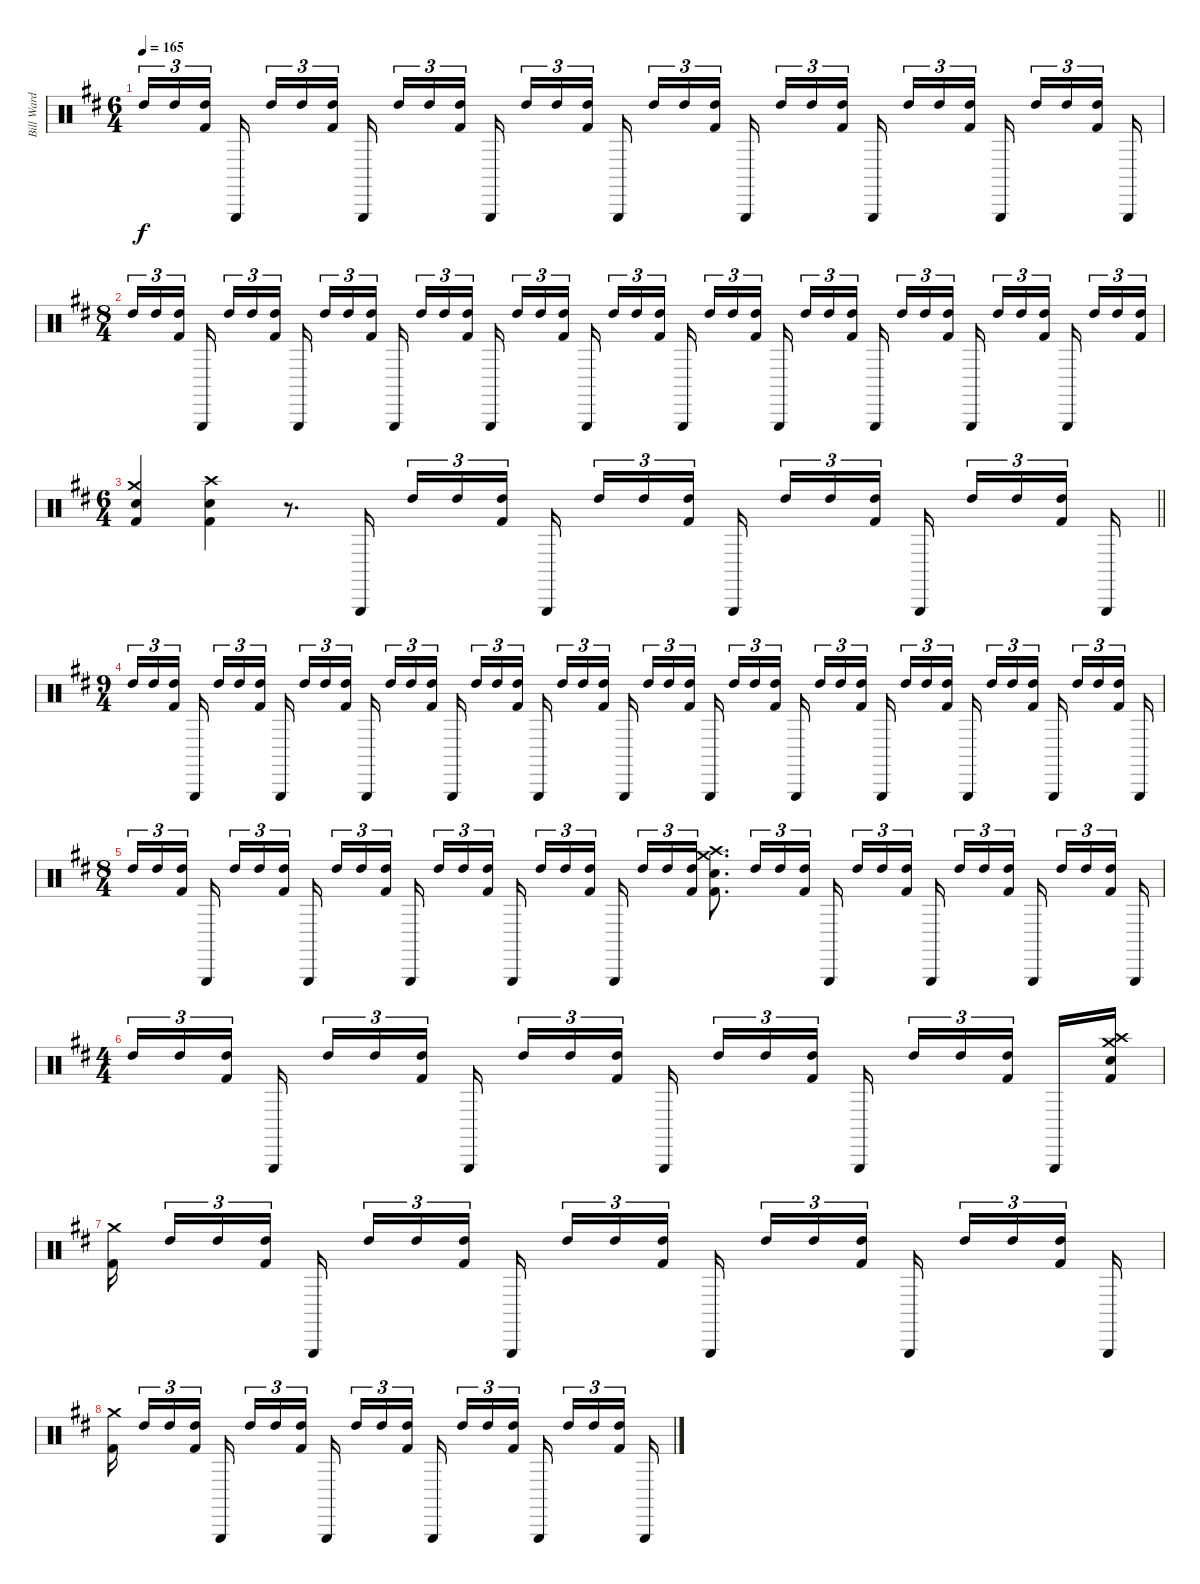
\track ("Bill Ward" "Bill Ward") {instrument percussion}
\staff {score}
\articulation defaults
\ts (6 4)
\tempo 165
\clef neutral
\ks d "High Tom (hit)".16{tu (3 2) dy f} "High Tom (hit)".16{tu (3 2)}
("High Tom (hit)" "Kick (hit) 2").16{tu (3 2) beam splitsecondary} "Triangle (hit)".16{beam splitsecondary} "High Tom (hit)".16{tu (3 2)} "High Tom (hit)".16{tu (3 2)} ("High Tom (hit)" "Kick (hit) 2").16{tu (3 2) beam splitsecondary} "Triangle (hit)".16{beam splitsecondary} "High Tom (hit)".16{tu (3 2)} "High Tom (hit)".16{tu (3 2)} ("High Tom (hit)" "Kick (hit) 2").16{tu (3 2) beam splitsecondary} "Triangle (hit)".16{beam splitsecondary} "High Tom (hit)".16{tu (3 2)} "High Tom (hit)".16{tu (3 2)} ("High Tom (hit)" "Kick (hit) 2").16{tu (3 2) beam splitsecondary} "Triangle (hit)".16 "High Tom (hit)".16{tu (3 2)} "High Tom (hit)".16{tu (3 2)} ("High Tom (hit)" "Kick (hit) 2").16{tu (3 2) beam splitsecondary} "Triangle (hit)".16{beam splitsecondary} "High Tom (hit)".16{tu (3 2)} "High Tom (hit)".16{tu (3 2)} ("High Tom (hit)" "Kick (hit) 2").16{tu (3 2) beam splitsecondary} "Triangle (hit)".16{beam splitsecondary} "High Tom (hit)".16{tu (3 2)} "High Tom (hit)".16{tu (3 2)} ("High Tom (hit)" "Kick (hit) 2").16{tu (3 2) beam splitsecondary} "Triangle (hit)".16{beam splitsecondary} "High Tom (hit)".16{tu (3 2)} "High Tom (hit)".16{tu (3 2)} ("High Tom (hit)" "Kick (hit) 2").16{tu (3 2) beam splitsecondary} "Triangle (hit)".16 |
\ts (8 4)
"High Tom (hit)".16{tu (3 2)} "High Tom (hit)".16{tu (3 2)} ("High Tom (hit)" "Kick (hit) 2").16{tu (3 2) beam splitsecondary} "Triangle (hit)".16{beam splitsecondary} "High Tom (hit)".16{tu (3 2)} "High Tom (hit)".16{tu (3 2)} ("High Tom (hit)" "Kick (hit) 2").16{tu (3 2) beam splitsecondary} "Triangle (hit)".16{beam splitsecondary} "High Tom (hit)".16{tu (3 2)} "High Tom (hit)".16{tu (3 2)} ("High Tom (hit)" "Kick (hit) 2").16{tu (3 2)} "Triangle (hit)".16{beam splitsecondary} "High Tom (hit)".16{tu (3 2)} "High Tom (hit)".16{tu (3 2)} ("High Tom (hit)" "Kick (hit) 2").16{tu (3 2) beam splitsecondary} "Triangle (hit)".16 "High Tom (hit)".16{tu (3 2)} "High Tom (hit)".16{tu (3 2)} ("High Tom (hit)" "Kick (hit) 2").16{tu (3 2) beam splitsecondary} "Triangle (hit)".16{beam splitsecondary} "High Tom (hit)".16{tu (3 2)} "High Tom (hit)".16{tu (3 2)} ("High Tom (hit)" "Kick (hit) 2").16{tu (3 2) beam splitsecondary} "Triangle (hit)".16{beam splitsecondary} "High Tom (hit)".16{tu (3 2)} "High Tom (hit)".16{tu (3 2)} ("High Tom (hit)" "Kick (hit) 2").16{tu (3 2)} "Triangle (hit)".16{beam splitsecondary} "High Tom (hit)".16{tu (3 2)} "High Tom (hit)".16{tu (3 2)} ("High Tom (hit)" "Kick (hit) 2").16{tu (3 2) beam splitsecondary} "Triangle (hit)".16 "High Tom (hit)".16{tu (3 2)} "High Tom (hit)".16{tu (3 2)} ("High Tom (hit)" "Kick (hit) 2").16{tu (3 2) beam splitsecondary} "Triangle (hit)".16{beam splitsecondary} "High Tom (hit)".16{tu (3 2)} "High Tom (hit)".16{tu (3 2)} ("High Tom (hit)" "Kick (hit) 2").16{tu (3 2) beam splitsecondary} "Triangle (hit)".16{beam splitsecondary} "High Tom (hit)".16{tu (3 2)} "High Tom (hit)".16{tu (3 2)} ("High Tom (hit)" "Kick (hit) 2").16{tu (3 2)} |
\ts (6 4)
\barLineRight lightlight
("Crash medium (hit)" "Snare (hit) 2" "Kick (hit) 2").4 ("Crash high (hit)" "Snare (hit) 2" "Kick (hit) 2").4 r.8{d} "Triangle (hit)".16 "High Tom (hit)".16{tu (3 2)} "High Tom (hit)".16{tu (3 2)} ("High Tom (hit)" "Kick (hit) 2").16{tu (3 2) beam splitsecondary} "Triangle (hit)".16{beam splitsecondary} "High Tom (hit)".16{tu (3 2)} "High Tom (hit)".16{tu (3 2)} ("High Tom (hit)" "Kick (hit) 2").16{tu (3 2) beam splitsecondary} "Triangle (hit)".16{beam splitsecondary} "High Tom (hit)".16{tu (3 2)} "High Tom (hit)".16{tu (3 2)} ("High Tom (hit)" "Kick (hit) 2").16{tu (3 2) beam splitsecondary} "Triangle (hit)".16{beam splitsecondary} "High Tom (hit)".16{tu (3 2)} "High Tom (hit)".16{tu (3 2)} ("High Tom (hit)" "Kick (hit) 2").16{tu (3 2) beam splitsecondary} "Triangle (hit)".16 |
\ts (9 4)
"High Tom (hit)".16{tu (3 2)} "High Tom (hit)".16{tu (3 2)} ("High Tom (hit)" "Kick (hit) 2").16{tu (3 2) beam splitsecondary} "Triangle (hit)".16{beam splitsecondary} "High Tom (hit)".16{tu (3 2)} "High Tom (hit)".16{tu (3 2)} ("High Tom (hit)" "Kick (hit) 2").16{tu (3 2) beam splitsecondary} "Triangle (hit)".16{beam splitsecondary} "High Tom (hit)".16{tu (3 2)} "High Tom (hit)".16{tu (3 2)} ("High Tom (hit)" "Kick (hit) 2").16{tu (3 2) beam splitsecondary} "Triangle (hit)".16{beam splitsecondary} "High Tom (hit)".16{tu (3 2)} "High Tom (hit)".16{tu (3 2)} ("High Tom (hit)" "Kick (hit) 2").16{tu (3 2) beam splitsecondary} "Triangle (hit)".16 "High Tom (hit)".16{tu (3 2)} "High Tom (hit)".16{tu (3 2)} ("High Tom (hit)" "Kick (hit) 2").16{tu (3 2) beam splitsecondary} "Triangle (hit)".16{beam splitsecondary} "High Tom (hit)".16{tu (3 2)} "High Tom (hit)".16{tu (3 2)} ("High Tom (hit)" "Kick (hit) 2").16{tu (3 2) beam splitsecondary} "Triangle (hit)".16{beam splitsecondary} "High Tom (hit)".16{tu (3 2)} "High Tom (hit)".16{tu (3 2)} ("High Tom (hit)" "Kick (hit) 2").16{tu (3 2) beam splitsecondary} "Triangle (hit)".16{beam splitsecondary} "High Tom (hit)".16{tu (3 2)} "High Tom (hit)".16{tu (3 2)} ("High Tom (hit)" "Kick (hit) 2").16{tu (3 2) beam splitsecondary} "Triangle (hit)".16 "High Tom (hit)".16{tu (3 2)} "High Tom (hit)".16{tu (3 2)} ("High Tom (hit)" "Kick (hit) 2").16{tu (3 2) beam splitsecondary} "Triangle (hit)".16{beam splitsecondary} "High Tom (hit)".16{tu (3 2)} "High Tom (hit)".16{tu (3 2)} ("High Tom (hit)" "Kick (hit) 2").16{tu (3 2) beam splitsecondary} "Triangle (hit)".16{beam splitsecondary} "High Tom (hit)".16{tu (3 2)} "High Tom (hit)".16{tu (3 2)} ("High Tom (hit)" "Kick (hit) 2").16{tu (3 2) beam splitsecondary} "Triangle (hit)".16{beam splitsecondary} "High Tom (hit)".16{tu (3 2)} "High Tom (hit)".16{tu (3 2)} ("High Tom (hit)" "Kick (hit) 2").16{tu (3 2) beam splitsecondary} "Triangle (hit)".16 |
\ts (8 4)
"High Tom (hit)".16{tu (3 2)} "High Tom (hit)".16{tu (3 2)} ("High Tom (hit)" "Kick (hit) 2").16{tu (3 2) beam splitsecondary} "Triangle (hit)".16{beam splitsecondary} "High Tom (hit)".16{tu (3 2)} "High Tom (hit)".16{tu (3 2)} ("High Tom (hit)" "Kick (hit) 2").16{tu (3 2) beam splitsecondary} "Triangle (hit)".16{beam splitsecondary} "High Tom (hit)".16{tu (3 2)} "High Tom (hit)".16{tu (3 2)} ("High Tom (hit)" "Kick (hit) 2").16{tu (3 2)} "Triangle (hit)".16{beam splitsecondary} "High Tom (hit)".16{tu (3 2)} "High Tom (hit)".16{tu (3 2)} ("High Tom (hit)" "Kick (hit) 2").16{tu (3 2) beam splitsecondary} "Triangle (hit)".16 "High Tom (hit)".16{tu (3 2)} "High Tom (hit)".16{tu (3 2)} ("High Tom (hit)" "Kick (hit) 2").16{tu (3 2) beam splitsecondary} "Triangle (hit)".16{beam splitsecondary} "High Tom (hit)".16{tu (3 2)} "High Tom (hit)".16{tu (3 2)} ("High Tom (hit)" "Kick (hit) 2").16{tu (3 2)} ("Crash medium (hit)" "Crash high (hit)" "Snare (hit) 2" "Kick (hit) 2").8{d} "High Tom (hit)".16{tu (3 2)} "High Tom (hit)".16{tu (3 2)} ("High Tom (hit)" "Kick (hit) 2").16{tu (3 2) beam splitsecondary} "Triangle (hit)".16{beam splitsecondary} "High Tom (hit)".16{tu (3 2)} "High Tom (hit)".16{tu (3 2)} ("High Tom (hit)" "Kick (hit) 2").16{tu (3 2) beam splitsecondary} "Triangle (hit)".16{beam splitsecondary} "High Tom (hit)".16{tu (3 2)} "High Tom (hit)".16{tu (3 2)} ("High Tom (hit)" "Kick (hit) 2").16{tu (3 2)} "Triangle (hit)".16{beam splitsecondary} "High Tom (hit)".16{tu (3 2)} "High Tom (hit)".16{tu (3 2)} ("High Tom (hit)" "Kick (hit) 2").16{tu (3 2) beam splitsecondary} "Triangle (hit)".16 |
\ts (4 4)
"High Tom (hit)".16{tu (3 2)} "High Tom (hit)".16{tu (3 2)} ("High Tom (hit)" "Kick (hit) 2").16{tu (3 2) beam splitsecondary} "Triangle (hit)".16{beam splitsecondary} "High Tom (hit)".16{tu (3 2)} "High Tom (hit)".16{tu (3 2)} ("High Tom (hit)" "Kick (hit) 2").16{tu (3 2) beam splitsecondary} "Triangle (hit)".16{beam splitsecondary} "High Tom (hit)".16{tu (3 2)} "High Tom (hit)".16{tu (3 2)} ("High Tom (hit)" "Kick (hit) 2").16{tu (3 2)} "Triangle (hit)".16{beam splitsecondary} "High Tom (hit)".16{tu (3 2)} "High Tom (hit)".16{tu (3 2)} ("High Tom (hit)" "Kick (hit) 2").16{tu (3 2) beam splitsecondary} "Triangle (hit)".16 "High Tom (hit)".16{tu (3 2)} "High Tom (hit)".16{tu (3 2)} ("High Tom (hit)" "Kick (hit) 2").16{tu (3 2) beam splitsecondary} "Triangle (hit)".16 ("Crash medium (hit)" "Crash high (hit)" "Snare (hit) 2" "Kick (hit) 2").16 |
("Crash medium (hit)" "Kick (hit) 2").16{beam splitsecondary} "High Tom (hit)".16{tu (3 2)} "High Tom (hit)".16{tu (3 2)} ("High Tom (hit)" "Kick (hit) 2").16{tu (3 2) beam splitsecondary} "Triangle (hit)".16 "High Tom (hit)".16{tu (3 2)} "High Tom (hit)".16{tu (3 2)} ("High Tom (hit)" "Kick (hit) 2").16{tu (3 2) beam splitsecondary} "Triangle (hit)".16{beam splitsecondary} "High Tom (hit)".16{tu (3 2)} "High Tom (hit)".16{tu (3 2)} ("High Tom (hit)" "Kick (hit) 2").16{tu (3 2) beam splitsecondary} "Triangle (hit)".16{beam splitsecondary} "High Tom (hit)".16{tu (3 2)} "High Tom (hit)".16{tu (3 2)} ("High Tom (hit)" "Kick (hit) 2").16{tu (3 2)} "Triangle (hit)".16{beam splitsecondary} "High Tom (hit)".16{tu (3 2)} "High Tom (hit)".16{tu (3 2)} ("High Tom (hit)" "Kick (hit) 2").16{tu (3 2) beam splitsecondary} "Triangle (hit)".16 |
("Crash medium (hit)" "Kick (hit) 2").16{beam splitsecondary} "High Tom (hit)".16{tu (3 2)} "High Tom (hit)".16{tu (3 2)} ("High Tom (hit)" "Kick (hit) 2").16{tu (3 2) beam splitsecondary} "Triangle (hit)".16 "High Tom (hit)".16{tu (3 2)} "High Tom (hit)".16{tu (3 2)} ("High Tom (hit)" "Kick (hit) 2").16{tu (3 2) beam splitsecondary} "Triangle (hit)".16{beam splitsecondary} "High Tom (hit)".16{tu (3 2)} "High Tom (hit)".16{tu (3 2)} ("High Tom (hit)" "Kick (hit) 2").16{tu (3 2) beam splitsecondary} "Triangle (hit)".16{beam splitsecondary} "High Tom (hit)".16{tu (3 2)} "High Tom (hit)".16{tu (3 2)} ("High Tom (hit)" "Kick (hit) 2").16{tu (3 2)} "Triangle (hit)".16{beam splitsecondary} "High Tom (hit)".16{tu (3 2)} "High Tom (hit)".16{tu (3 2)} ("High Tom (hit)" "Kick (hit) 2").16{tu (3 2) beam splitsecondary} "Triangle (hit)".16
